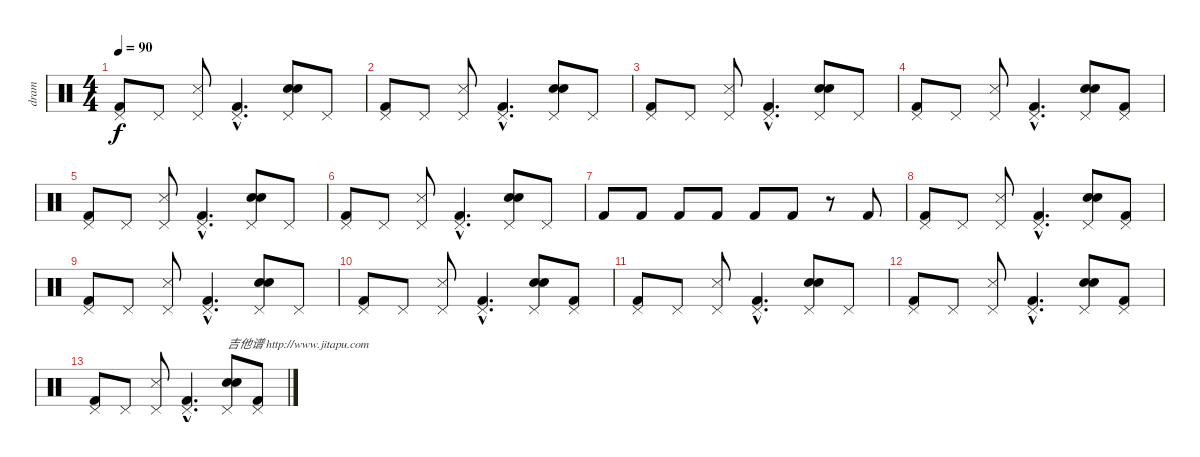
\track ("dram" "dram") {instrument percussion}
\staff {score}
\articulation defaults
\ts (4 4)
\tempo 90
\clef neutral
\ks c
("Pedal Hi-Hat (hit)" "Kick (hit) 2").8{dy f} "Pedal Hi-Hat (hit)".8 ("Pedal Hi-Hat (hit)" "Snare (side stick) 3").8 ("Pedal Hi-Hat (hit)"{hac} "Kick (hit) 2"{hac}).4{d} ("Pedal Hi-Hat (hit)" "Electric Snare (hit)" "Hand Clap (hit)").8 "Pedal Hi-Hat (hit)".8 |
("Pedal Hi-Hat (hit)" "Kick (hit) 2").8 "Pedal Hi-Hat (hit)".8 ("Pedal Hi-Hat (hit)" "Snare (side stick) 3").8 ("Pedal Hi-Hat (hit)"{hac} "Kick (hit) 2"{hac}).4{d} ("Pedal Hi-Hat (hit)" "Electric Snare (hit)" "Hand Clap (hit)").8 "Pedal Hi-Hat (hit)".8 |
("Pedal Hi-Hat (hit)" "Kick (hit) 2").8 "Pedal Hi-Hat (hit)".8 ("Pedal Hi-Hat (hit)" "Snare (side stick) 3").8 ("Pedal Hi-Hat (hit)"{hac} "Kick (hit) 2"{hac}).4{d} ("Pedal Hi-Hat (hit)" "Electric Snare (hit)" "Hand Clap (hit)").8 "Pedal Hi-Hat (hit)".8 |
("Pedal Hi-Hat (hit)" "Kick (hit) 2").8 "Pedal Hi-Hat (hit)".8 ("Pedal Hi-Hat (hit)" "Snare (side stick) 3").8 ("Pedal Hi-Hat (hit)"{hac} "Kick (hit) 2"{hac}).4{d} ("Pedal Hi-Hat (hit)" "Electric Snare (hit)" "Hand Clap (hit)").8 ("Pedal Hi-Hat (hit)" "Kick (hit) 2").8 |
("Pedal Hi-Hat (hit)" "Kick (hit) 2").8 "Pedal Hi-Hat (hit)".8 ("Pedal Hi-Hat (hit)" "Snare (side stick) 3").8 ("Pedal Hi-Hat (hit)"{hac} "Kick (hit) 2"{hac}).4{d} ("Pedal Hi-Hat (hit)" "Electric Snare (hit)" "Hand Clap (hit)").8 "Pedal Hi-Hat (hit)".8 |
("Pedal Hi-Hat (hit)" "Kick (hit) 2").8 "Pedal Hi-Hat (hit)".8 ("Pedal Hi-Hat (hit)" "Snare (side stick) 3").8 ("Pedal Hi-Hat (hit)"{hac} "Kick (hit) 2"{hac}).4{d} ("Pedal Hi-Hat (hit)" "Electric Snare (hit)" "Hand Clap (hit)").8 "Pedal Hi-Hat (hit)".8 |
"Kick (hit) 2".8 "Kick (hit) 2".8 "Kick (hit) 2".8 "Kick (hit) 2".8 "Kick (hit) 2".8 "Kick (hit) 2".8 r.8 "Kick (hit) 2".8 |
("Pedal Hi-Hat (hit)" "Kick (hit) 2").8 "Pedal Hi-Hat (hit)".8 ("Pedal Hi-Hat (hit)" "Snare (side stick) 3").8 ("Pedal Hi-Hat (hit)"{hac} "Kick (hit) 2"{hac}).4{d} ("Pedal Hi-Hat (hit)" "Electric Snare (hit)" "Hand Clap (hit)").8 ("Pedal Hi-Hat (hit)" "Kick (hit) 2").8 |
("Pedal Hi-Hat (hit)" "Kick (hit) 2").8 "Pedal Hi-Hat (hit)".8 ("Pedal Hi-Hat (hit)" "Snare (side stick) 3").8 ("Pedal Hi-Hat (hit)"{hac} "Kick (hit) 2"{hac}).4{d} ("Pedal Hi-Hat (hit)" "Electric Snare (hit)" "Hand Clap (hit)").8 "Pedal Hi-Hat (hit)".8 |
("Pedal Hi-Hat (hit)" "Kick (hit) 2").8 "Pedal Hi-Hat (hit)".8 ("Pedal Hi-Hat (hit)" "Snare (side stick) 3").8 ("Pedal Hi-Hat (hit)"{hac} "Kick (hit) 2"{hac}).4{d} ("Pedal Hi-Hat (hit)" "Electric Snare (hit)" "Hand Clap (hit)").8 ("Pedal Hi-Hat (hit)" "Kick (hit) 2").8 |
("Pedal Hi-Hat (hit)" "Kick (hit) 2").8 "Pedal Hi-Hat (hit)".8 ("Pedal Hi-Hat (hit)" "Snare (side stick) 3").8 ("Pedal Hi-Hat (hit)"{hac} "Kick (hit) 2"{hac}).4{d} ("Pedal Hi-Hat (hit)" "Electric Snare (hit)" "Hand Clap (hit)").8 "Pedal Hi-Hat (hit)".8 |
("Pedal Hi-Hat (hit)" "Kick (hit) 2").8 "Pedal Hi-Hat (hit)".8 ("Pedal Hi-Hat (hit)" "Snare (side stick) 3").8 ("Pedal Hi-Hat (hit)"{hac} "Kick (hit) 2"{hac}).4{d} ("Pedal Hi-Hat (hit)" "Electric Snare (hit)" "Hand Clap (hit)").8 ("Pedal Hi-Hat (hit)" "Kick (hit) 2").8 |
("Pedal Hi-Hat (hit)" "Kick (hit) 2").8 "Pedal Hi-Hat (hit)".8 ("Pedal Hi-Hat (hit)" "Snare (side stick) 3").8 ("Pedal Hi-Hat (hit)"{hac} "Kick (hit) 2"{hac}).4{d} ("Pedal Hi-Hat (hit)" "Electric Snare (hit)" "Hand Clap (hit)").8{txt "吉他谱 http://www.jitapu.com"} ("Pedal Hi-Hat (hit)" "Kick (hit) 2").8
